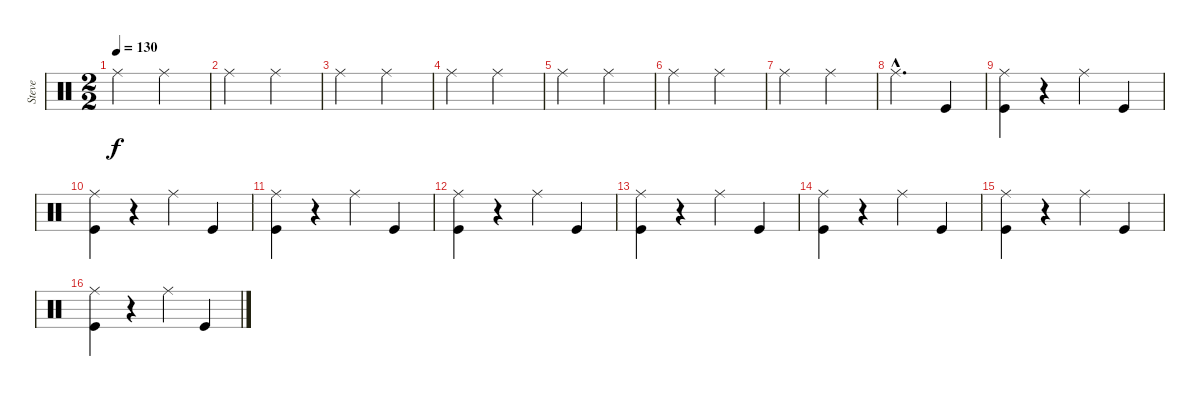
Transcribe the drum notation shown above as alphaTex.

\track ("Steve" "Steve") {instrument percussion}
\staff {score}
\articulation defaults
\ts (2 2)
\tempo 130
\clef neutral
\ks c "Ride (middle)".2{dy f} "Ride (middle)".2
|
"Ride (middle)".2 "Ride (middle)".2 |
"Ride (middle)".2 "Ride (middle)".2 |
"Ride (middle)".2 "Ride (middle)".2 |
"Ride (middle)".2 "Ride (middle)".2 |
"Ride (middle)".2 "Ride (middle)".2 |
"Ride (middle)".2 "Ride (middle)".2 |
"Ride (middle)"{hac}.2{d} "Kick (hit)".4 |
("Ride (middle)" "Kick (hit)").4 r.4 "Ride (middle)".4 "Kick (hit)".4 |
("Ride (middle)" "Kick (hit)").4 r.4 "Ride (middle)".4 "Kick (hit)".4 |
("Ride (middle)" "Kick (hit)").4 r.4 "Ride (middle)".4 "Kick (hit)".4 |
("Ride (middle)" "Kick (hit)").4 r.4 "Ride (middle)".4 "Kick (hit)".4 |
("Ride (middle)" "Kick (hit)").4 r.4 "Ride (middle)".4 "Kick (hit)".4 |
("Ride (middle)" "Kick (hit)").4 r.4 "Ride (middle)".4 "Kick (hit)".4 |
("Ride (middle)" "Kick (hit)").4 r.4 "Ride (middle)".4 "Kick (hit)".4 |
("Ride (middle)" "Kick (hit)").4 r.4 "Ride (middle)".4 "Kick (hit)".4
